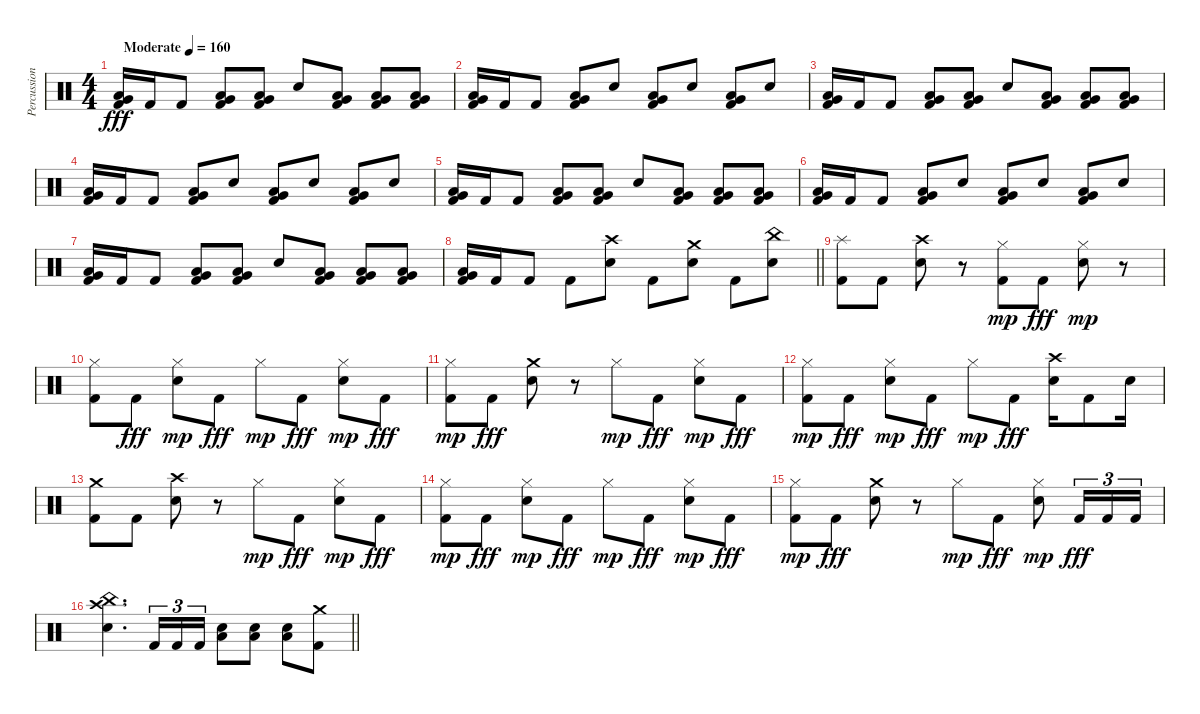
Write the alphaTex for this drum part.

\track ("Percussion" "Percussion") {instrument percussion}
\staff {score}
\articulation defaults
\ts (4 4)
\tempo (160 "Moderate")
\clef neutral
\ks c
("Kick (hit) 2" "Low Floor Tom (hit)" "Very Low Tom (hit)").16{dy fff} "Kick (hit) 2".16 "Kick (hit) 2".8 ("Kick (hit) 2" "Low Floor Tom (hit)" "Very Low Tom (hit)").8 ("Kick (hit) 2" "Low Floor Tom (hit)" "Very Low Tom (hit)").8 "Electric Snare (hit)".8 ("Kick (hit) 2" "Low Floor Tom (hit)" "Very Low Tom (hit)").8 ("Kick (hit) 2" "Low Floor Tom (hit)" "Very Low Tom (hit)").8 ("Kick (hit) 2" "Low Floor Tom (hit)" "Very Low Tom (hit)").8 |
("Kick (hit) 2" "Low Floor Tom (hit)" "Very Low Tom (hit)").16 "Kick (hit) 2".16 "Kick (hit) 2".8 ("Kick (hit) 2" "Low Floor Tom (hit)" "Very Low Tom (hit)").8 "Electric Snare (hit)".8 ("Kick (hit) 2" "Low Floor Tom (hit)" "Very Low Tom (hit)").8 "Electric Snare (hit)".8 ("Kick (hit) 2" "Low Floor Tom (hit)" "Very Low Tom (hit)").8 "Electric Snare (hit)".8 |
("Kick (hit) 2" "Low Floor Tom (hit)" "Very Low Tom (hit)").16 "Kick (hit) 2".16 "Kick (hit) 2".8 ("Kick (hit) 2" "Low Floor Tom (hit)" "Very Low Tom (hit)").8 ("Kick (hit) 2" "Low Floor Tom (hit)" "Very Low Tom (hit)").8 "Electric Snare (hit)".8 ("Kick (hit) 2" "Low Floor Tom (hit)" "Very Low Tom (hit)").8 ("Kick (hit) 2" "Low Floor Tom (hit)" "Very Low Tom (hit)").8 ("Kick (hit) 2" "Low Floor Tom (hit)" "Very Low Tom (hit)").8 |
("Kick (hit) 2" "Low Floor Tom (hit)" "Very Low Tom (hit)").16 "Kick (hit) 2".16 "Kick (hit) 2".8 ("Kick (hit) 2" "Low Floor Tom (hit)" "Very Low Tom (hit)").8 "Electric Snare (hit)".8 ("Kick (hit) 2" "Low Floor Tom (hit)" "Very Low Tom (hit)").8 "Electric Snare (hit)".8 ("Kick (hit) 2" "Low Floor Tom (hit)" "Very Low Tom (hit)").8 "Electric Snare (hit)".8 |
("Kick (hit) 2" "Low Floor Tom (hit)" "Very Low Tom (hit)").16 "Kick (hit) 2".16 "Kick (hit) 2".8 ("Kick (hit) 2" "Low Floor Tom (hit)" "Very Low Tom (hit)").8 ("Kick (hit) 2" "Low Floor Tom (hit)" "Very Low Tom (hit)").8 "Electric Snare (hit)".8 ("Kick (hit) 2" "Low Floor Tom (hit)" "Very Low Tom (hit)").8 ("Kick (hit) 2" "Low Floor Tom (hit)" "Very Low Tom (hit)").8 ("Kick (hit) 2" "Low Floor Tom (hit)" "Very Low Tom (hit)").8 |
("Kick (hit) 2" "Low Floor Tom (hit)" "Very Low Tom (hit)").16 "Kick (hit) 2".16 "Kick (hit) 2".8 ("Kick (hit) 2" "Low Floor Tom (hit)" "Very Low Tom (hit)").8 "Electric Snare (hit)".8 ("Kick (hit) 2" "Low Floor Tom (hit)" "Very Low Tom (hit)").8 "Electric Snare (hit)".8 ("Kick (hit) 2" "Low Floor Tom (hit)" "Very Low Tom (hit)").8 "Electric Snare (hit)".8 |
("Kick (hit) 2" "Low Floor Tom (hit)" "Very Low Tom (hit)").16 "Kick (hit) 2".16 "Kick (hit) 2".8 ("Kick (hit) 2" "Low Floor Tom (hit)" "Very Low Tom (hit)").8 ("Kick (hit) 2" "Low Floor Tom (hit)" "Very Low Tom (hit)").8 "Electric Snare (hit)".8 ("Kick (hit) 2" "Low Floor Tom (hit)" "Very Low Tom (hit)").8 ("Kick (hit) 2" "Low Floor Tom (hit)" "Very Low Tom (hit)").8 ("Kick (hit) 2" "Low Floor Tom (hit)" "Very Low Tom (hit)").8 |
\barLineRight lightlight
("Kick (hit) 2" "Low Floor Tom (hit)" "Very Low Tom (hit)").16 "Kick (hit) 2".16 "Kick (hit) 2".8 "Kick (hit) 2".8 ("Electric Snare (hit)" "Crash high (hit)").8 "Kick (hit) 2".8 ("Electric Snare (hit)" "Crash medium (hit)").8 "Kick (hit) 2".8 ("Electric Snare (hit)" "China (hit)").8 |
("Kick (hit) 2" "Splash (hit)").8 "Kick (hit) 2".8 ("Electric Snare (hit)" "Crash high (hit)").8 r.8 ("Kick (hit) 2" "Hi-Hat (closed)").8{dy mp} "Kick (hit) 2".8{dy fff} ("Electric Snare (hit)" "Hi-Hat (closed)").8{dy mp} r.8 |
("Kick (hit) 2" "Hi-Hat (closed)").8 "Kick (hit) 2".8{dy fff} ("Electric Snare (hit)" "Hi-Hat (closed)").8{dy mp} "Kick (hit) 2".8{dy fff} "Hi-Hat (closed)".8{dy mp} "Kick (hit) 2".8{dy fff} ("Electric Snare (hit)" "Hi-Hat (closed)").8{dy mp} "Kick (hit) 2".8{dy fff} |
("Kick (hit) 2" "Hi-Hat (closed)").8{dy mp} "Kick (hit) 2".8{dy fff} ("Electric Snare (hit)" "Crash medium (hit)").8 r.8 "Hi-Hat (closed)".8{dy mp} "Kick (hit) 2".8{dy fff} ("Electric Snare (hit)" "Hi-Hat (closed)").8{dy mp} "Kick (hit) 2".8{dy fff} |
("Kick (hit) 2" "Hi-Hat (closed)").8{dy mp} "Kick (hit) 2".8{dy fff} ("Electric Snare (hit)" "Hi-Hat (closed)").8{dy mp} "Kick (hit) 2".8{dy fff} "Hi-Hat (closed)".8{dy mp} "Kick (hit) 2".8{dy fff} ("Electric Snare (hit)" "Crash high (hit)").16 "Kick (hit) 2".8 "Electric Snare (hit)".16 |
("Kick (hit) 2" "Crash medium (hit)").8 "Kick (hit) 2".8 ("Electric Snare (hit)" "Crash high (hit)").8 r.8 "Hi-Hat (closed)".8{dy mp} "Kick (hit) 2".8{dy fff} ("Electric Snare (hit)" "Hi-Hat (closed)").8{dy mp} "Kick (hit) 2".8{dy fff} |
("Kick (hit) 2" "Hi-Hat (closed)").8{dy mp} "Kick (hit) 2".8{dy fff} ("Electric Snare (hit)" "Hi-Hat (closed)").8{dy mp} "Kick (hit) 2".8{dy fff} "Hi-Hat (closed)".8{dy mp} "Kick (hit) 2".8{dy fff} ("Electric Snare (hit)" "Hi-Hat (closed)").8{dy mp} "Kick (hit) 2".8{dy fff} |
("Kick (hit) 2" "Hi-Hat (closed)").8{dy mp} "Kick (hit) 2".8{dy fff} ("Electric Snare (hit)" "Crash medium (hit)").8 r.8 "Hi-Hat (closed)".8{dy mp} "Kick (hit) 2".8{dy fff} ("Electric Snare (hit)" "Hi-Hat (closed)").8{dy mp} "Kick (hit) 2".16{tu (3 2) dy fff} "Kick (hit) 2".16{tu (3 2)} "Kick (hit) 2".16{tu (3 2)} |
\barLineRight lightlight
("Electric Snare (hit)" "China (hit)" "Crash high (hit)").4{d} "Kick (hit) 2".16{tu (3 2)} "Kick (hit) 2".16{tu (3 2)} "Kick (hit) 2".16{tu (3 2)} ("Electric Snare (hit)" "Low Tom (hit)").8 ("Electric Snare (hit)" "Low Tom (hit)").8 ("Electric Snare (hit)" "Low Tom (hit)").8 ("Kick (hit) 2" "Crash medium (hit)").8
